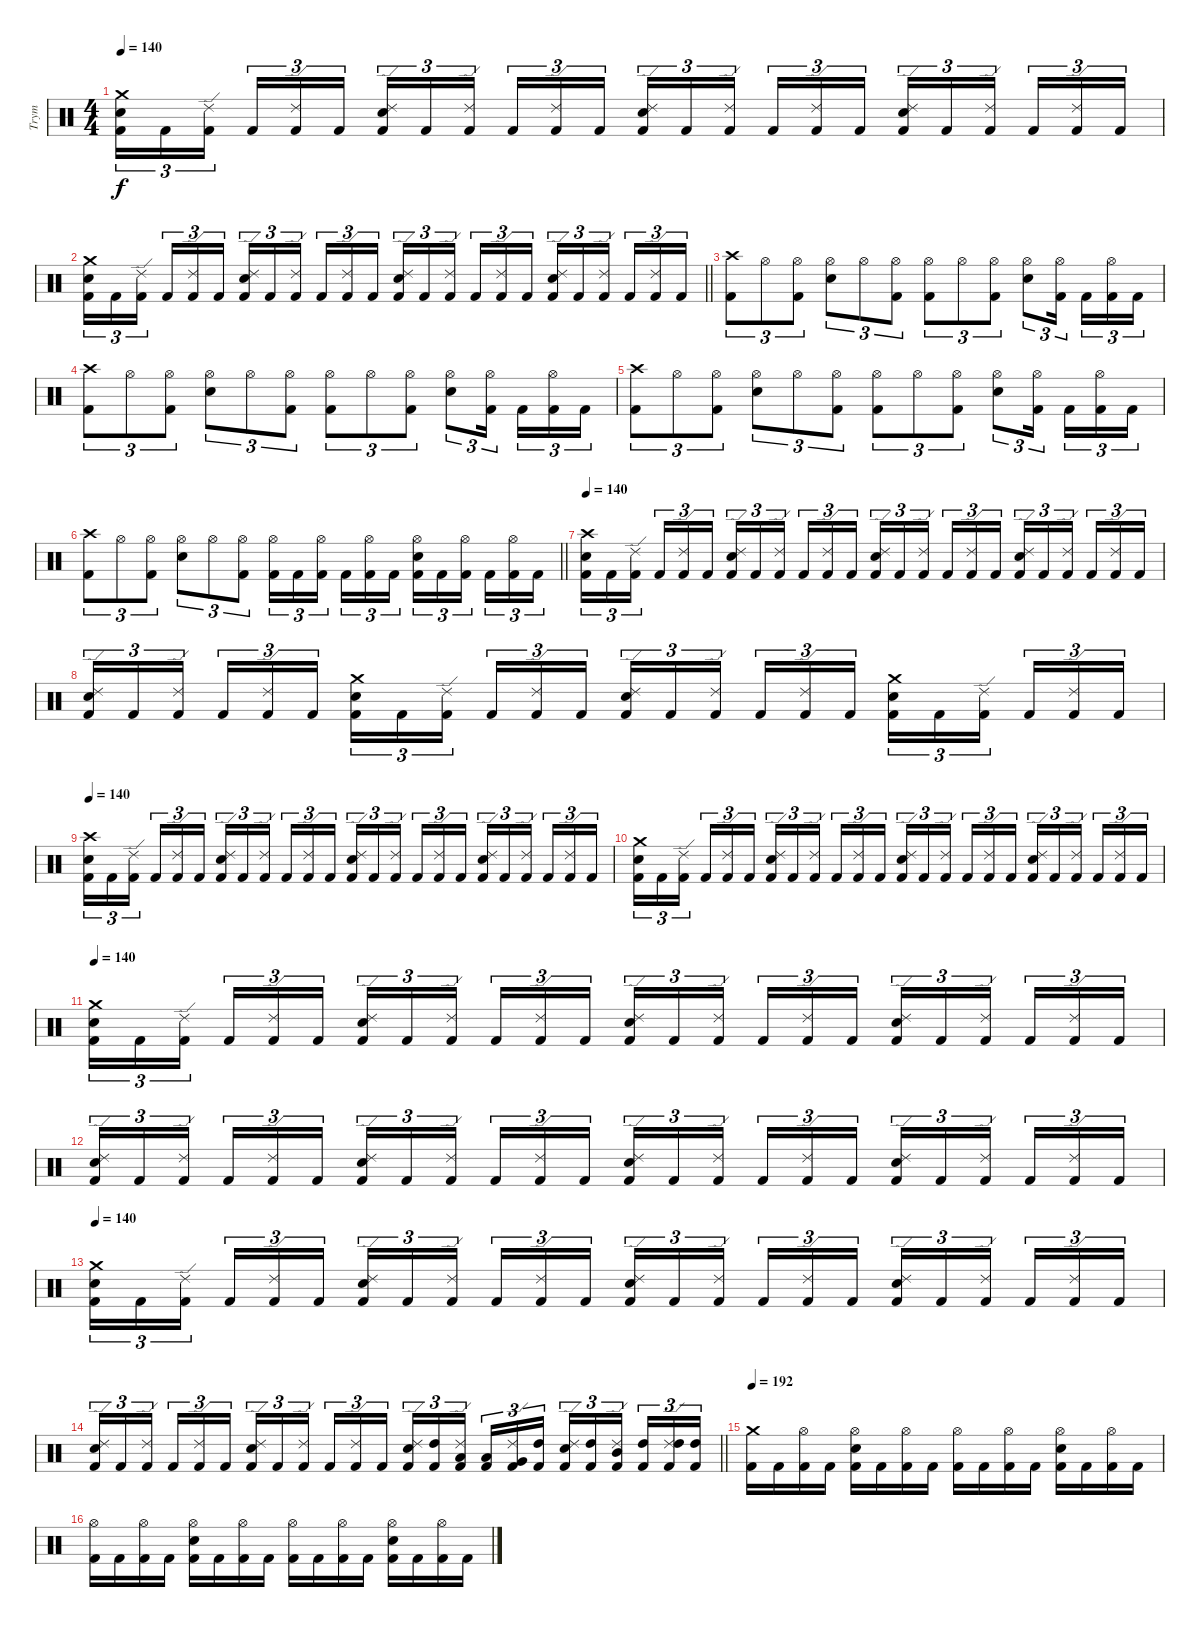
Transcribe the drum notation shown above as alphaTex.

\track ("Trym" "Trym") {instrument percussion}
\staff {score}
\articulation defaults
\ts (4 4)
\tempo 140
\clef neutral
\ks c
("Crash medium (hit)" "Electric Snare (hit)" "Kick (hit) 2").16{tu (3 2) dy f} "Kick (hit) 2".16{tu (3 2)} ("Ride (edge) 2" "Kick (hit) 2").16{tu (3 2) beam splitsecondary} "Kick (hit) 2".16{tu (3 2)} ("Ride (edge) 2" "Kick (hit) 2").16{tu (3 2)} "Kick (hit) 2".16{tu (3 2)} ("Ride (edge) 2" "Electric Snare (hit)" "Kick (hit) 2").16{tu (3 2)} "Kick (hit) 2".16{tu (3 2)} ("Ride (edge) 2" "Kick (hit) 2").16{tu (3 2) beam splitsecondary} "Kick (hit) 2".16{tu (3 2)} ("Ride (edge) 2" "Kick (hit) 2").16{tu (3 2)} "Kick (hit) 2".16{tu (3 2)} ("Ride (edge) 2" "Electric Snare (hit)" "Kick (hit) 2").16{tu (3 2)} "Kick (hit) 2".16{tu (3 2)} ("Ride (edge) 2" "Kick (hit) 2").16{tu (3 2) beam splitsecondary} "Kick (hit) 2".16{tu (3 2)} ("Ride (edge) 2" "Kick (hit) 2").16{tu (3 2)} "Kick (hit) 2".16{tu (3 2)} ("Ride (edge) 2" "Electric Snare (hit)" "Kick (hit) 2").16{tu (3 2)} "Kick (hit) 2".16{tu (3 2)} ("Ride (edge) 2" "Kick (hit) 2").16{tu (3 2) beam splitsecondary} "Kick (hit) 2".16{tu (3 2)} ("Ride (edge) 2" "Kick (hit) 2").16{tu (3 2)} "Kick (hit) 2".16{tu (3 2)} |
\barLineRight lightlight
("Crash medium (hit)" "Electric Snare (hit)" "Kick (hit) 2").16{tu (3 2)} "Kick (hit) 2".16{tu (3 2)} ("Ride (edge) 2" "Kick (hit) 2").16{tu (3 2) beam splitsecondary} "Kick (hit) 2".16{tu (3 2)} ("Ride (edge) 2" "Kick (hit) 2").16{tu (3 2)} "Kick (hit) 2".16{tu (3 2)} ("Ride (edge) 2" "Electric Snare (hit)" "Kick (hit) 2").16{tu (3 2)} "Kick (hit) 2".16{tu (3 2)} ("Ride (edge) 2" "Kick (hit) 2").16{tu (3 2) beam splitsecondary} "Kick (hit) 2".16{tu (3 2)} ("Ride (edge) 2" "Kick (hit) 2").16{tu (3 2)} "Kick (hit) 2".16{tu (3 2)} ("Ride (edge) 2" "Electric Snare (hit)" "Kick (hit) 2").16{tu (3 2)} "Kick (hit) 2".16{tu (3 2)} ("Ride (edge) 2" "Kick (hit) 2").16{tu (3 2) beam splitsecondary} "Kick (hit) 2".16{tu (3 2)} ("Ride (edge) 2" "Kick (hit) 2").16{tu (3 2)} "Kick (hit) 2".16{tu (3 2)} ("Ride (edge) 2" "Electric Snare (hit)" "Kick (hit) 2").16{tu (3 2)} "Kick (hit) 2".16{tu (3 2)} ("Ride (edge) 2" "Kick (hit) 2").16{tu (3 2) beam splitsecondary} "Kick (hit) 2".16{tu (3 2)} ("Ride (edge) 2" "Kick (hit) 2").16{tu (3 2)} "Kick (hit) 2".16{tu (3 2)} |
\section ("" "")
("Crash high (hit)" "Kick (hit) 2").8{tu (3 2)} "Hi-Hat (open)".8{tu (3 2)} ("Hi-Hat (open)" "Kick (hit) 2").8{tu (3 2)} ("Hi-Hat (open)" "Electric Snare (hit)").8{tu (3 2)} "Hi-Hat (open)".8{tu (3 2)} ("Hi-Hat (open)" "Kick (hit) 2").8{tu (3 2)} ("Hi-Hat (open)" "Kick (hit) 2").8{tu (3 2)} "Hi-Hat (open)".8{tu (3 2)} ("Hi-Hat (open)" "Kick (hit) 2").8{tu (3 2)} ("Hi-Hat (open)" "Electric Snare (hit)").8{tu (3 2)} ("Hi-Hat (open)" "Kick (hit) 2").16{tu (3 2) beam splitsecondary} "Kick (hit) 2".16{tu (3 2)} ("Hi-Hat (open)" "Kick (hit) 2").16{tu (3 2)} "Kick (hit) 2".16{tu (3 2)} |
("Crash high (hit)" "Kick (hit) 2").8{tu (3 2)} "Hi-Hat (open)".8{tu (3 2)} ("Hi-Hat (open)" "Kick (hit) 2").8{tu (3 2)} ("Hi-Hat (open)" "Electric Snare (hit)").8{tu (3 2)} "Hi-Hat (open)".8{tu (3 2)} ("Hi-Hat (open)" "Kick (hit) 2").8{tu (3 2)} ("Hi-Hat (open)" "Kick (hit) 2").8{tu (3 2)} "Hi-Hat (open)".8{tu (3 2)} ("Hi-Hat (open)" "Kick (hit) 2").8{tu (3 2)} ("Hi-Hat (open)" "Electric Snare (hit)").8{tu (3 2)} ("Hi-Hat (open)" "Kick (hit) 2").16{tu (3 2) beam splitsecondary} "Kick (hit) 2".16{tu (3 2)} ("Hi-Hat (open)" "Kick (hit) 2").16{tu (3 2)} "Kick (hit) 2".16{tu (3 2)} |
("Crash high (hit)" "Kick (hit) 2").8{tu (3 2)} "Hi-Hat (open)".8{tu (3 2)} ("Hi-Hat (open)" "Kick (hit) 2").8{tu (3 2)} ("Hi-Hat (open)" "Electric Snare (hit)").8{tu (3 2)} "Hi-Hat (open)".8{tu (3 2)} ("Hi-Hat (open)" "Kick (hit) 2").8{tu (3 2)} ("Hi-Hat (open)" "Kick (hit) 2").8{tu (3 2)} "Hi-Hat (open)".8{tu (3 2)} ("Hi-Hat (open)" "Kick (hit) 2").8{tu (3 2)} ("Hi-Hat (open)" "Electric Snare (hit)").8{tu (3 2)} ("Hi-Hat (open)" "Kick (hit) 2").16{tu (3 2) beam splitsecondary} "Kick (hit) 2".16{tu (3 2)} ("Hi-Hat (open)" "Kick (hit) 2").16{tu (3 2)} "Kick (hit) 2".16{tu (3 2)} |
\barLineRight lightlight
("Crash high (hit)" "Kick (hit) 2").8{tu (3 2)} "Hi-Hat (open)".8{tu (3 2)} ("Hi-Hat (open)" "Kick (hit) 2").8{tu (3 2)} ("Hi-Hat (open)" "Electric Snare (hit)").8{tu (3 2)} "Hi-Hat (open)".8{tu (3 2)} ("Hi-Hat (open)" "Kick (hit) 2").8{tu (3 2)} ("Hi-Hat (open)" "Kick (hit) 2").16{tu (3 2)} "Kick (hit) 2".16{tu (3 2)} ("Hi-Hat (open)" "Kick (hit) 2").16{tu (3 2) beam splitsecondary} "Kick (hit) 2".16{tu (3 2)} ("Hi-Hat (open)" "Kick (hit) 2").16{tu (3 2)} "Kick (hit) 2".16{tu (3 2)} ("Hi-Hat (open)" "Electric Snare (hit)" "Kick (hit) 2").16{tu (3 2)} "Kick (hit) 2".16{tu (3 2)} ("Hi-Hat (open)" "Kick (hit) 2").16{tu (3 2) beam splitsecondary} "Kick (hit) 2".16{tu (3 2)} ("Hi-Hat (open)" "Kick (hit) 2").16{tu (3 2)} "Kick (hit) 2".16{tu (3 2)} |
\section ("" "")
\tempo 140
("Crash high (hit)" "Electric Snare (hit)" "Kick (hit) 2").16{tu (3 2)} "Kick (hit) 2".16{tu (3 2)} ("Ride (edge) 2" "Kick (hit) 2").16{tu (3 2) beam splitsecondary} "Kick (hit) 2".16{tu (3 2)} ("Ride (edge) 2" "Kick (hit) 2").16{tu (3 2)} "Kick (hit) 2".16{tu (3 2)} ("Ride (edge) 2" "Electric Snare (hit)" "Kick (hit) 2").16{tu (3 2)} "Kick (hit) 2".16{tu (3 2)} ("Ride (edge) 2" "Kick (hit) 2").16{tu (3 2) beam splitsecondary} "Kick (hit) 2".16{tu (3 2)} ("Ride (edge) 2" "Kick (hit) 2").16{tu (3 2)} "Kick (hit) 2".16{tu (3 2)} ("Ride (edge) 2" "Electric Snare (hit)" "Kick (hit) 2").16{tu (3 2)} "Kick (hit) 2".16{tu (3 2)} ("Ride (edge) 2" "Kick (hit) 2").16{tu (3 2) beam splitsecondary} "Kick (hit) 2".16{tu (3 2)} ("Ride (edge) 2" "Kick (hit) 2").16{tu (3 2)} "Kick (hit) 2".16{tu (3 2)} ("Ride (edge) 2" "Electric Snare (hit)" "Kick (hit) 2").16{tu (3 2)} "Kick (hit) 2".16{tu (3 2)} ("Ride (edge) 2" "Kick (hit) 2").16{tu (3 2) beam splitsecondary} "Kick (hit) 2".16{tu (3 2)} ("Ride (edge) 2" "Kick (hit) 2").16{tu (3 2)} "Kick (hit) 2".16{tu (3 2)} |
("Ride (edge) 2" "Electric Snare (hit)" "Kick (hit) 2").16{tu (3 2)} "Kick (hit) 2".16{tu (3 2)} ("Ride (edge) 2" "Kick (hit) 2").16{tu (3 2) beam splitsecondary} "Kick (hit) 2".16{tu (3 2)} ("Ride (edge) 2" "Kick (hit) 2").16{tu (3 2)} "Kick (hit) 2".16{tu (3 2)} ("Crash medium (hit)" "Electric Snare (hit)" "Kick (hit) 2").16{tu (3 2)} "Kick (hit) 2".16{tu (3 2)} ("Ride (edge) 2" "Kick (hit) 2").16{tu (3 2) beam splitsecondary} "Kick (hit) 2".16{tu (3 2)} ("Ride (edge) 2" "Kick (hit) 2").16{tu (3 2)} "Kick (hit) 2".16{tu (3 2)} ("Ride (edge) 2" "Electric Snare (hit)" "Kick (hit) 2").16{tu (3 2)} "Kick (hit) 2".16{tu (3 2)} ("Ride (edge) 2" "Kick (hit) 2").16{tu (3 2) beam splitsecondary} "Kick (hit) 2".16{tu (3 2)} ("Ride (edge) 2" "Kick (hit) 2").16{tu (3 2)} "Kick (hit) 2".16{tu (3 2)} ("Crash medium (hit)" "Electric Snare (hit)" "Kick (hit) 2").16{tu (3 2)} "Kick (hit) 2".16{tu (3 2)} ("Ride (edge) 2" "Kick (hit) 2").16{tu (3 2) beam splitsecondary} "Kick (hit) 2".16{tu (3 2)} ("Ride (edge) 2" "Kick (hit) 2").16{tu (3 2)} "Kick (hit) 2".16{tu (3 2)} |
\tempo 140
("Crash high (hit)" "Electric Snare (hit)" "Kick (hit) 2").16{tu (3 2)} "Kick (hit) 2".16{tu (3 2)} ("Ride (edge) 2" "Kick (hit) 2").16{tu (3 2) beam splitsecondary} "Kick (hit) 2".16{tu (3 2)} ("Ride (edge) 2" "Kick (hit) 2").16{tu (3 2)} "Kick (hit) 2".16{tu (3 2)} ("Ride (edge) 2" "Electric Snare (hit)" "Kick (hit) 2").16{tu (3 2)} "Kick (hit) 2".16{tu (3 2)} ("Ride (edge) 2" "Kick (hit) 2").16{tu (3 2) beam splitsecondary} "Kick (hit) 2".16{tu (3 2)} ("Ride (edge) 2" "Kick (hit) 2").16{tu (3 2)} "Kick (hit) 2".16{tu (3 2)} ("Ride (edge) 2" "Electric Snare (hit)" "Kick (hit) 2").16{tu (3 2)} "Kick (hit) 2".16{tu (3 2)} ("Ride (edge) 2" "Kick (hit) 2").16{tu (3 2) beam splitsecondary} "Kick (hit) 2".16{tu (3 2)} ("Ride (edge) 2" "Kick (hit) 2").16{tu (3 2)} "Kick (hit) 2".16{tu (3 2)} ("Ride (edge) 2" "Electric Snare (hit)" "Kick (hit) 2").16{tu (3 2)} "Kick (hit) 2".16{tu (3 2)} ("Ride (edge) 2" "Kick (hit) 2").16{tu (3 2) beam splitsecondary} "Kick (hit) 2".16{tu (3 2)} ("Ride (edge) 2" "Kick (hit) 2").16{tu (3 2)} "Kick (hit) 2".16{tu (3 2)} |
("Crash medium (hit)" "Electric Snare (hit)" "Kick (hit) 2").16{tu (3 2)} "Kick (hit) 2".16{tu (3 2)} ("Ride (edge) 2" "Kick (hit) 2").16{tu (3 2) beam splitsecondary} "Kick (hit) 2".16{tu (3 2)} ("Ride (edge) 2" "Kick (hit) 2").16{tu (3 2)} "Kick (hit) 2".16{tu (3 2)} ("Ride (edge) 2" "Electric Snare (hit)" "Kick (hit) 2").16{tu (3 2)} "Kick (hit) 2".16{tu (3 2)} ("Ride (edge) 2" "Kick (hit) 2").16{tu (3 2) beam splitsecondary} "Kick (hit) 2".16{tu (3 2)} ("Ride (edge) 2" "Kick (hit) 2").16{tu (3 2)} "Kick (hit) 2".16{tu (3 2)} ("Ride (edge) 2" "Electric Snare (hit)" "Kick (hit) 2").16{tu (3 2)} "Kick (hit) 2".16{tu (3 2)} ("Ride (edge) 2" "Kick (hit) 2").16{tu (3 2) beam splitsecondary} "Kick (hit) 2".16{tu (3 2)} ("Ride (edge) 2" "Kick (hit) 2").16{tu (3 2)} "Kick (hit) 2".16{tu (3 2)} ("Ride (edge) 2" "Electric Snare (hit)" "Kick (hit) 2").16{tu (3 2)} "Kick (hit) 2".16{tu (3 2)} ("Ride (edge) 2" "Kick (hit) 2").16{tu (3 2) beam splitsecondary} "Kick (hit) 2".16{tu (3 2)} ("Ride (edge) 2" "Kick (hit) 2").16{tu (3 2)} "Kick (hit) 2".16{tu (3 2)} |
\tempo 140
("Crash medium (hit)" "Electric Snare (hit)" "Kick (hit) 2").16{tu (3 2)} "Kick (hit) 2".16{tu (3 2)} ("Ride (edge) 2" "Kick (hit) 2").16{tu (3 2) beam splitsecondary} "Kick (hit) 2".16{tu (3 2)} ("Ride (edge) 2" "Kick (hit) 2").16{tu (3 2)} "Kick (hit) 2".16{tu (3 2)} ("Ride (edge) 2" "Electric Snare (hit)" "Kick (hit) 2").16{tu (3 2)} "Kick (hit) 2".16{tu (3 2)} ("Ride (edge) 2" "Kick (hit) 2").16{tu (3 2) beam splitsecondary} "Kick (hit) 2".16{tu (3 2)} ("Ride (edge) 2" "Kick (hit) 2").16{tu (3 2)} "Kick (hit) 2".16{tu (3 2)} ("Ride (edge) 2" "Electric Snare (hit)" "Kick (hit) 2").16{tu (3 2)} "Kick (hit) 2".16{tu (3 2)} ("Ride (edge) 2" "Kick (hit) 2").16{tu (3 2) beam splitsecondary} "Kick (hit) 2".16{tu (3 2)} ("Ride (edge) 2" "Kick (hit) 2").16{tu (3 2)} "Kick (hit) 2".16{tu (3 2)} ("Ride (edge) 2" "Electric Snare (hit)" "Kick (hit) 2").16{tu (3 2)} "Kick (hit) 2".16{tu (3 2)} ("Ride (edge) 2" "Kick (hit) 2").16{tu (3 2) beam splitsecondary} "Kick (hit) 2".16{tu (3 2)} ("Ride (edge) 2" "Kick (hit) 2").16{tu (3 2)} "Kick (hit) 2".16{tu (3 2)} |
("Ride (edge) 2" "Electric Snare (hit)" "Kick (hit) 2").16{tu (3 2)} "Kick (hit) 2".16{tu (3 2)} ("Ride (edge) 2" "Kick (hit) 2").16{tu (3 2) beam splitsecondary} "Kick (hit) 2".16{tu (3 2)} ("Ride (edge) 2" "Kick (hit) 2").16{tu (3 2)} "Kick (hit) 2".16{tu (3 2)} ("Ride (edge) 2" "Electric Snare (hit)" "Kick (hit) 2").16{tu (3 2)} "Kick (hit) 2".16{tu (3 2)} ("Ride (edge) 2" "Kick (hit) 2").16{tu (3 2) beam splitsecondary} "Kick (hit) 2".16{tu (3 2)} ("Ride (edge) 2" "Kick (hit) 2").16{tu (3 2)} "Kick (hit) 2".16{tu (3 2)} ("Ride (edge) 2" "Electric Snare (hit)" "Kick (hit) 2").16{tu (3 2)} "Kick (hit) 2".16{tu (3 2)} ("Ride (edge) 2" "Kick (hit) 2").16{tu (3 2) beam splitsecondary} "Kick (hit) 2".16{tu (3 2)} ("Ride (edge) 2" "Kick (hit) 2").16{tu (3 2)} "Kick (hit) 2".16{tu (3 2)} ("Ride (edge) 2" "Electric Snare (hit)" "Kick (hit) 2").16{tu (3 2)} "Kick (hit) 2".16{tu (3 2)} ("Ride (edge) 2" "Kick (hit) 2").16{tu (3 2) beam splitsecondary} "Kick (hit) 2".16{tu (3 2)} ("Ride (edge) 2" "Kick (hit) 2").16{tu (3 2)} "Kick (hit) 2".16{tu (3 2)} |
\tempo 140
("Crash medium (hit)" "Electric Snare (hit)" "Kick (hit) 2").16{tu (3 2)} "Kick (hit) 2".16{tu (3 2)} ("Ride (edge) 2" "Kick (hit) 2").16{tu (3 2) beam splitsecondary} "Kick (hit) 2".16{tu (3 2)} ("Ride (edge) 2" "Kick (hit) 2").16{tu (3 2)} "Kick (hit) 2".16{tu (3 2)} ("Ride (edge) 2" "Electric Snare (hit)" "Kick (hit) 2").16{tu (3 2)} "Kick (hit) 2".16{tu (3 2)} ("Ride (edge) 2" "Kick (hit) 2").16{tu (3 2) beam splitsecondary} "Kick (hit) 2".16{tu (3 2)} ("Ride (edge) 2" "Kick (hit) 2").16{tu (3 2)} "Kick (hit) 2".16{tu (3 2)} ("Ride (edge) 2" "Electric Snare (hit)" "Kick (hit) 2").16{tu (3 2)} "Kick (hit) 2".16{tu (3 2)} ("Ride (edge) 2" "Kick (hit) 2").16{tu (3 2) beam splitsecondary} "Kick (hit) 2".16{tu (3 2)} ("Ride (edge) 2" "Kick (hit) 2").16{tu (3 2)} "Kick (hit) 2".16{tu (3 2)} ("Ride (edge) 2" "Electric Snare (hit)" "Kick (hit) 2").16{tu (3 2)} "Kick (hit) 2".16{tu (3 2)} ("Ride (edge) 2" "Kick (hit) 2").16{tu (3 2) beam splitsecondary} "Kick (hit) 2".16{tu (3 2)} ("Ride (edge) 2" "Kick (hit) 2").16{tu (3 2)} "Kick (hit) 2".16{tu (3 2)} |
\barLineRight lightlight
("Ride (edge) 2" "Electric Snare (hit)" "Kick (hit) 2").16{tu (3 2)} "Kick (hit) 2".16{tu (3 2)} ("Ride (edge) 2" "Kick (hit) 2").16{tu (3 2) beam splitsecondary} "Kick (hit) 2".16{tu (3 2)} ("Ride (edge) 2" "Kick (hit) 2").16{tu (3 2)} "Kick (hit) 2".16{tu (3 2)} ("Ride (edge) 2" "Electric Snare (hit)" "Kick (hit) 2").16{tu (3 2)} "Kick (hit) 2".16{tu (3 2)} ("Ride (edge) 2" "Kick (hit) 2").16{tu (3 2) beam splitsecondary} "Kick (hit) 2".16{tu (3 2)} ("Ride (edge) 2" "Kick (hit) 2").16{tu (3 2)} "Kick (hit) 2".16{tu (3 2)} ("Ride (edge) 2" "Electric Snare (hit)" "Kick (hit) 2").16{tu (3 2)} ("High Tom (hit)" "Kick (hit) 2").16{tu (3 2)} ("Ride (edge) 2" "Low Tom (hit)" "Kick (hit) 2").16{tu (3 2) beam splitsecondary} ("Low Tom (hit)" "Kick (hit) 2").16{tu (3 2)} ("Ride (edge) 2" "Very Low Tom (hit)" "Kick (hit) 2").16{tu (3 2)} ("High Tom (hit)" "Kick (hit) 2").16{tu (3 2)} ("Ride (edge) 2" "Electric Snare (hit)" "Kick (hit) 2").16{tu (3 2)} ("High Tom (hit)" "Kick (hit) 2").16{tu (3 2)} ("Ride (edge) 2" "Mid Tom (hit)" "Kick (hit) 2").16{tu (3 2) beam splitsecondary} ("High Tom (hit)" "Kick (hit) 2").16{tu (3 2)} ("Ride (edge) 2" "High Tom (hit)" "Kick (hit) 2").16{tu (3 2)} ("High Tom (hit)" "Kick (hit) 2").16{tu (3 2)} |
\section ("" "")
\tempo 192
("Crash medium (hit)" "Kick (hit) 2").16 "Kick (hit) 2".16 ("Hi-Hat (open)" "Kick (hit) 2").16 "Kick (hit) 2".16 ("Hi-Hat (open)" "Electric Snare (hit)" "Kick (hit) 2").16 "Kick (hit) 2".16 ("Hi-Hat (open)" "Kick (hit) 2").16 "Kick (hit) 2".16 ("Hi-Hat (open)" "Kick (hit) 2").16 "Kick (hit) 2".16 ("Hi-Hat (open)" "Kick (hit) 2").16 "Kick (hit) 2".16 ("Hi-Hat (open)" "Electric Snare (hit)" "Kick (hit) 2").16 "Kick (hit) 2".16 ("Hi-Hat (open)" "Kick (hit) 2").16 "Kick (hit) 2".16 |
("Hi-Hat (open)" "Kick (hit) 2").16 "Kick (hit) 2".16 ("Hi-Hat (open)" "Kick (hit) 2").16 "Kick (hit) 2".16 ("Hi-Hat (open)" "Electric Snare (hit)" "Kick (hit) 2").16 "Kick (hit) 2".16 ("Hi-Hat (open)" "Kick (hit) 2").16 "Kick (hit) 2".16 ("Hi-Hat (open)" "Kick (hit) 2").16 "Kick (hit) 2".16 ("Hi-Hat (open)" "Kick (hit) 2").16 "Kick (hit) 2".16 ("Hi-Hat (open)" "Electric Snare (hit)" "Kick (hit) 2").16 "Kick (hit) 2".16 ("Hi-Hat (open)" "Kick (hit) 2").16 "Kick (hit) 2".16
